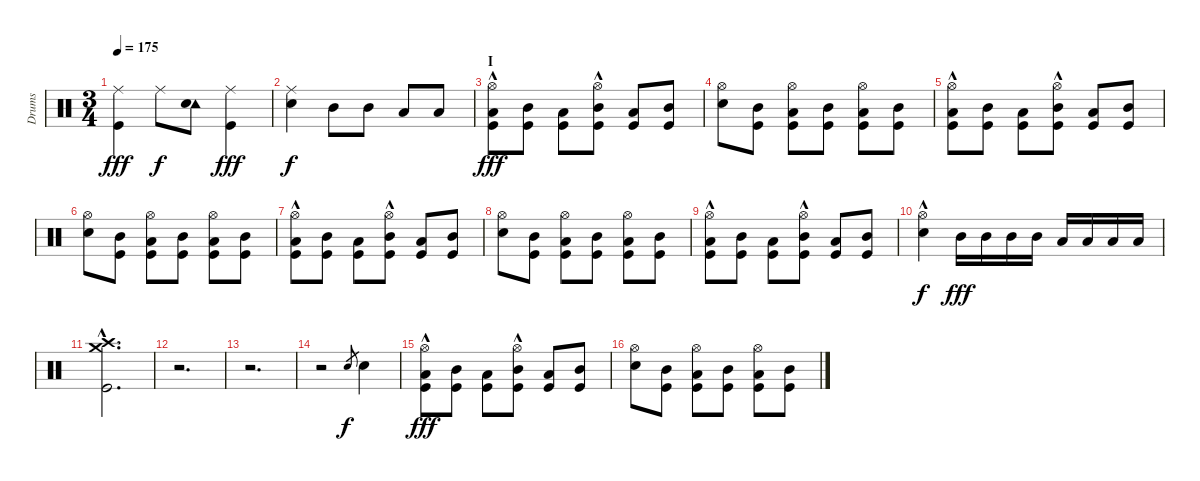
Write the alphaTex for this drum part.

\track ("Drums" "Drums") {instrument percussion}
\staff {score}
\articulation defaults
\ts (3 4)
\tempo 175
\clef neutral
\ks c
("Ride (middle)" "Kick (hit)").4{dy fff} "Ride (middle)".8{dy f} ("Tambourine (hit)" "Snare (hit) 2").8 ("Ride (middle)" "Kick (hit)").4{dy fff} |
("Ride (middle)" "Snare (hit) 2").4{dy f} "Mid Tom (hit)".8 "Mid Tom (hit)".8 "Low Tom (hit)".8 "Low Tom (hit)".8 |
\section ("" "I")
("Hi-Hat (open)" "Low Tom (hit)"{hac} "Kick (hit)").8{dy fff} ("Mid Tom (hit)" "Kick (hit)").8 ("Low Tom (hit)" "Kick (hit)").8 ("Hi-Hat (open)" "Mid Tom (hit)"{hac} "Kick (hit)").8 ("Low Tom (hit)" "Kick (hit)").8 ("Mid Tom (hit)" "Kick (hit)").8 |
("Hi-Hat (open)" "Snare (hit) 2").8 ("Mid Tom (hit)" "Kick (hit)").8 ("Hi-Hat (open)" "Low Tom (hit)" "Kick (hit)").8 ("Mid Tom (hit)" "Kick (hit)").8 ("Hi-Hat (open)" "Low Tom (hit)" "Kick (hit)").8 ("Mid Tom (hit)" "Kick (hit)").8 |
("Hi-Hat (open)" "Low Tom (hit)"{hac} "Kick (hit)").8 ("Mid Tom (hit)" "Kick (hit)").8 ("Low Tom (hit)" "Kick (hit)").8 ("Hi-Hat (open)" "Mid Tom (hit)"{hac} "Kick (hit)").8 ("Low Tom (hit)" "Kick (hit)").8 ("Mid Tom (hit)" "Kick (hit)").8 |
("Hi-Hat (open)" "Snare (hit) 2").8 ("Mid Tom (hit)" "Kick (hit)").8 ("Hi-Hat (open)" "Low Tom (hit)" "Kick (hit)").8 ("Mid Tom (hit)" "Kick (hit)").8 ("Hi-Hat (open)" "Low Tom (hit)" "Kick (hit)").8 ("Mid Tom (hit)" "Kick (hit)").8 |
("Hi-Hat (open)" "Low Tom (hit)"{hac} "Kick (hit)").8 ("Mid Tom (hit)" "Kick (hit)").8 ("Low Tom (hit)" "Kick (hit)").8 ("Hi-Hat (open)" "Mid Tom (hit)"{hac} "Kick (hit)").8 ("Low Tom (hit)" "Kick (hit)").8 ("Mid Tom (hit)" "Kick (hit)").8 |
("Hi-Hat (open)" "Snare (hit) 2").8 ("Mid Tom (hit)" "Kick (hit)").8 ("Hi-Hat (open)" "Low Tom (hit)" "Kick (hit)").8 ("Mid Tom (hit)" "Kick (hit)").8 ("Hi-Hat (open)" "Low Tom (hit)" "Kick (hit)").8 ("Mid Tom (hit)" "Kick (hit)").8 |
("Hi-Hat (open)" "Low Tom (hit)"{hac} "Kick (hit)").8 ("Mid Tom (hit)" "Kick (hit)").8 ("Low Tom (hit)" "Kick (hit)").8 ("Hi-Hat (open)" "Mid Tom (hit)"{hac} "Kick (hit)").8 ("Low Tom (hit)" "Kick (hit)").8 ("Mid Tom (hit)" "Kick (hit)").8 |
("Hi-Hat (open)"{hac} "Snare (hit) 2").4{dy f} "Mid Tom (hit)".16{dy fff} "Mid Tom (hit)".16 "Mid Tom (hit)".16 "Mid Tom (hit)".16 "Low Tom (hit)".16 "Low Tom (hit)".16 "Low Tom (hit)".16 "Low Tom (hit)".16 |
("Crash high (hit)"{hac} "Crash medium (hit)"{hac} "Kick (hit)"{hac}).2{d} |
r.2{d} |
r.2{d} |
r.2 "Snare (hit) 2".8{gr dy f} "Snare (hit) 2".4 |
("Hi-Hat (open)" "Low Tom (hit)"{hac} "Kick (hit)").8{dy fff} ("Mid Tom (hit)" "Kick (hit)").8 ("Low Tom (hit)" "Kick (hit)").8 ("Hi-Hat (open)" "Mid Tom (hit)"{hac} "Kick (hit)").8 ("Low Tom (hit)" "Kick (hit)").8 ("Mid Tom (hit)" "Kick (hit)").8 |
("Hi-Hat (open)" "Snare (hit) 2").8 ("Mid Tom (hit)" "Kick (hit)").8 ("Hi-Hat (open)" "Low Tom (hit)" "Kick (hit)").8 ("Mid Tom (hit)" "Kick (hit)").8 ("Hi-Hat (open)" "Low Tom (hit)" "Kick (hit)").8 ("Mid Tom (hit)" "Kick (hit)").8
